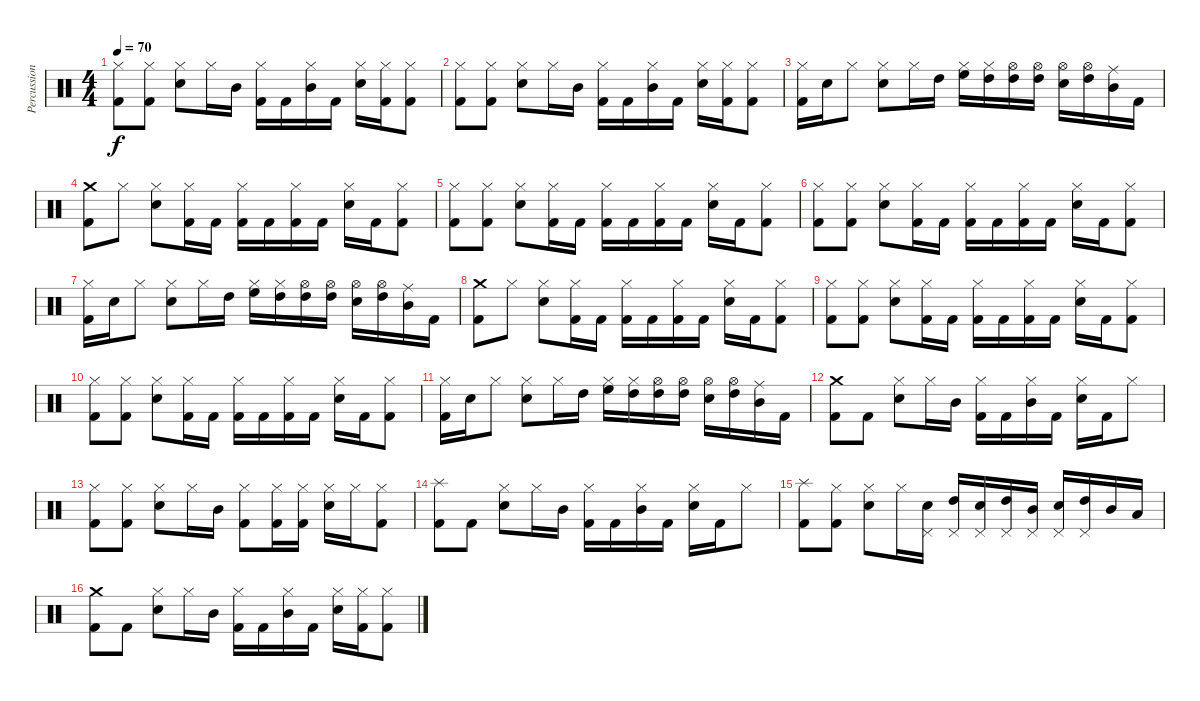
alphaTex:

\track ("Percussion" "Percussion") {instrument percussion}
\staff {score}
\articulation defaults
\ts (4 4)
\tempo 70
\clef neutral
\ks c
("Hi-Hat (closed)" "Kick (hit) 2").8{dy f} ("Hi-Hat (closed)" "Kick (hit) 2").8 ("Hi-Hat (closed)" "Electric Snare (hit)").8 "Hi-Hat (closed)".16 "Mid Tom (hit)".16 ("Hi-Hat (closed)" "Kick (hit) 2").16 "Kick (hit) 2".16 ("Hi-Hat (closed)" "Mid Tom (hit)").16 "Kick (hit) 2".16 ("Hi-Hat (closed)" "Electric Snare (hit)").16 ("Hi-Hat (closed)" "Kick (hit) 2").16 ("Hi-Hat (closed)" "Kick (hit) 2").8 |
("Hi-Hat (closed)" "Kick (hit) 2").8 ("Hi-Hat (closed)" "Kick (hit) 2").8 ("Hi-Hat (closed)" "Electric Snare (hit)").8 "Hi-Hat (closed)".16 "Mid Tom (hit)".16 ("Hi-Hat (closed)" "Kick (hit) 2").16 "Kick (hit) 2".16 ("Hi-Hat (closed)" "Mid Tom (hit)").16 "Kick (hit) 2".16 ("Hi-Hat (closed)" "Electric Snare (hit)").16 ("Hi-Hat (closed)" "Kick (hit) 2").16 ("Hi-Hat (closed)" "Kick (hit) 2").8 |
("Hi-Hat (closed)" "Kick (hit) 2").16 "Electric Snare (hit)".16 "Hi-Hat (closed)".8 ("Hi-Hat (closed)" "Electric Snare (hit)").8 "Hi-Hat (closed)".16 "High Tom (hit)".16 ("Hi-Hat (closed)" "High Floor Tom (hit)").16 ("Hi-Hat (closed)" "High Tom (hit)").16 ("Hi-Hat (open)" "High Tom (hit)").16 ("Hi-Hat (open)" "High Tom (hit)").16 ("Hi-Hat (open)" "Electric Snare (hit)").16 ("Hi-Hat (open)" "High Tom (hit)").16 ("Ride (middle)" "Mid Tom (hit)").16 "Kick (hit) 2".16 |
("Crash medium (hit)" "Kick (hit) 2").8 "Hi-Hat (closed)".8 ("Hi-Hat (closed)" "Electric Snare (hit)").8 ("Hi-Hat (closed)" "Kick (hit) 2").16 "Kick (hit) 2".16 ("Hi-Hat (closed)" "Kick (hit) 2").16 "Kick (hit) 2".16 ("Hi-Hat (closed)" "Kick (hit) 2").16 "Kick (hit) 2".16 ("Hi-Hat (closed)" "Electric Snare (hit)").16 "Kick (hit) 2".16 ("Hi-Hat (closed)" "Kick (hit) 2").8 |
("Hi-Hat (closed)" "Kick (hit) 2").8 ("Hi-Hat (closed)" "Kick (hit) 2").8 ("Hi-Hat (closed)" "Electric Snare (hit)").8 ("Hi-Hat (closed)" "Kick (hit) 2").16 "Kick (hit) 2".16 ("Hi-Hat (closed)" "Kick (hit) 2").16 "Kick (hit) 2".16 ("Hi-Hat (closed)" "Kick (hit) 2").16 "Kick (hit) 2".16 ("Hi-Hat (closed)" "Electric Snare (hit)").16 "Kick (hit) 2".16 ("Hi-Hat (closed)" "Kick (hit) 2").8 |
("Hi-Hat (closed)" "Kick (hit) 2").8 ("Hi-Hat (closed)" "Kick (hit) 2").8 ("Hi-Hat (closed)" "Electric Snare (hit)").8 ("Hi-Hat (closed)" "Kick (hit) 2").16 "Kick (hit) 2".16 ("Hi-Hat (closed)" "Kick (hit) 2").16 "Kick (hit) 2".16 ("Hi-Hat (closed)" "Kick (hit) 2").16 "Kick (hit) 2".16 ("Hi-Hat (closed)" "Electric Snare (hit)").16 "Kick (hit) 2".16 ("Hi-Hat (closed)" "Kick (hit) 2").8 |
("Hi-Hat (closed)" "Kick (hit) 2").16 "Electric Snare (hit)".16 "Hi-Hat (closed)".8 ("Hi-Hat (closed)" "Electric Snare (hit)").8 "Hi-Hat (closed)".16 "High Tom (hit)".16 ("Hi-Hat (closed)" "High Floor Tom (hit)").16 ("Hi-Hat (closed)" "High Tom (hit)").16 ("Hi-Hat (open)" "High Tom (hit)").16 ("Hi-Hat (open)" "High Tom (hit)").16 ("Hi-Hat (open)" "Electric Snare (hit)").16 ("Hi-Hat (open)" "High Tom (hit)").16 ("Ride (middle)" "Mid Tom (hit)").16 "Kick (hit) 2".16 |
("Crash medium (hit)" "Kick (hit) 2").8 "Hi-Hat (closed)".8 ("Hi-Hat (closed)" "Electric Snare (hit)").8 ("Hi-Hat (closed)" "Kick (hit) 2").16 "Kick (hit) 2".16 ("Hi-Hat (closed)" "Kick (hit) 2").16 "Kick (hit) 2".16 ("Hi-Hat (closed)" "Kick (hit) 2").16 "Kick (hit) 2".16 ("Hi-Hat (closed)" "Electric Snare (hit)").16 "Kick (hit) 2".16 ("Hi-Hat (closed)" "Kick (hit) 2").8 |
("Hi-Hat (closed)" "Kick (hit) 2").8 ("Hi-Hat (closed)" "Kick (hit) 2").8 ("Hi-Hat (closed)" "Electric Snare (hit)").8 ("Hi-Hat (closed)" "Kick (hit) 2").16 "Kick (hit) 2".16 ("Hi-Hat (closed)" "Kick (hit) 2").16 "Kick (hit) 2".16 ("Hi-Hat (closed)" "Kick (hit) 2").16 "Kick (hit) 2".16 ("Hi-Hat (closed)" "Electric Snare (hit)").16 "Kick (hit) 2".16 ("Hi-Hat (closed)" "Kick (hit) 2").8 |
("Hi-Hat (closed)" "Kick (hit) 2").8 ("Hi-Hat (closed)" "Kick (hit) 2").8 ("Hi-Hat (closed)" "Electric Snare (hit)").8 ("Hi-Hat (closed)" "Kick (hit) 2").16 "Kick (hit) 2".16 ("Hi-Hat (closed)" "Kick (hit) 2").16 "Kick (hit) 2".16 ("Hi-Hat (closed)" "Kick (hit) 2").16 "Kick (hit) 2".16 ("Hi-Hat (closed)" "Electric Snare (hit)").16 "Kick (hit) 2".16 ("Hi-Hat (closed)" "Kick (hit) 2").8 |
("Hi-Hat (closed)" "Kick (hit) 2").16 "Electric Snare (hit)".16 "Hi-Hat (closed)".8 ("Hi-Hat (closed)" "Electric Snare (hit)").8 "Hi-Hat (closed)".16 "High Tom (hit)".16 ("Hi-Hat (closed)" "High Floor Tom (hit)").16 ("Hi-Hat (closed)" "High Tom (hit)").16 ("Hi-Hat (open)" "High Tom (hit)").16 ("Hi-Hat (open)" "High Tom (hit)").16 ("Hi-Hat (open)" "Electric Snare (hit)").16 ("Hi-Hat (open)" "High Tom (hit)").16 ("Ride (middle)" "Mid Tom (hit)").16 "Kick (hit) 2".16 |
("Crash medium (hit)" "Kick (hit) 2").8{volume 8} "Kick (hit) 2".8 ("Hi-Hat (closed)" "Electric Snare (hit)").8 "Hi-Hat (closed)".16 "Mid Tom (hit)".16 ("Hi-Hat (closed)" "Kick (hit) 2").16 "Kick (hit) 2".16 ("Hi-Hat (closed)" "Mid Tom (hit)").16 "Kick (hit) 2".16 ("Hi-Hat (closed)" "Electric Snare (hit)").16 "Kick (hit) 2".16 "Hi-Hat (closed)".8 |
("Hi-Hat (closed)" "Kick (hit) 2").8 ("Hi-Hat (closed)" "Kick (hit) 2").8 ("Hi-Hat (closed)" "Electric Snare (hit)").8 "Hi-Hat (closed)".16 "Mid Tom (hit)".16 ("Hi-Hat (closed)" "Kick (hit) 2").8 ("Hi-Hat (closed)" "Kick (hit) 2").16 ("Hi-Hat (closed)" "Kick (hit) 2").16 ("Hi-Hat (closed)" "Electric Snare (hit)").16 "Hi-Hat (closed)".16 ("Hi-Hat (closed)" "Kick (hit) 2").8 |
("Splash (hit)" "Kick (hit) 2").8 "Kick (hit) 2".8 ("Hi-Hat (closed)" "Electric Snare (hit)").8 "Hi-Hat (closed)".16 "Mid Tom (hit)".16 ("Hi-Hat (closed)" "Kick (hit) 2").16 "Kick (hit) 2".16 ("Hi-Hat (closed)" "Mid Tom (hit)").16 "Kick (hit) 2".16 ("Hi-Hat (closed)" "Electric Snare (hit)").16 "Kick (hit) 2".16 "Hi-Hat (closed)".8 |
("Splash (hit)" "Kick (hit) 2").8 ("Hi-Hat (closed)" "Kick (hit) 2").8 ("Hi-Hat (closed)" "Electric Snare (hit)").8 "Hi-Hat (closed)".16 ("Pedal Hi-Hat (hit)" "Electric Snare (hit)").16 ("Pedal Hi-Hat (hit)" "High Tom (hit)").16 ("Pedal Hi-Hat (hit)" "Electric Snare (hit)").16 ("Pedal Hi-Hat (hit)" "High Tom (hit)").16 ("Pedal Hi-Hat (hit)" "Mid Tom (hit)").16 ("Pedal Hi-Hat (hit)" "Electric Snare (hit)").16 ("Pedal Hi-Hat (hit)" "High Tom (hit)").16 "Mid Tom (hit)".16 "Low Tom (hit)".16 |
("Crash medium (hit)" "Kick (hit) 2").8{volume 0} "Kick (hit) 2".8 ("Hi-Hat (closed)" "Electric Snare (hit)").8 "Hi-Hat (closed)".16 "Mid Tom (hit)".16 ("Hi-Hat (closed)" "Kick (hit) 2").16 "Kick (hit) 2".16 ("Hi-Hat (closed)" "Mid Tom (hit)").16 "Kick (hit) 2".16 ("Hi-Hat (closed)" "Electric Snare (hit)").16 ("Hi-Hat (closed)" "Kick (hit) 2").16 ("Hi-Hat (closed)" "Kick (hit) 2").8
